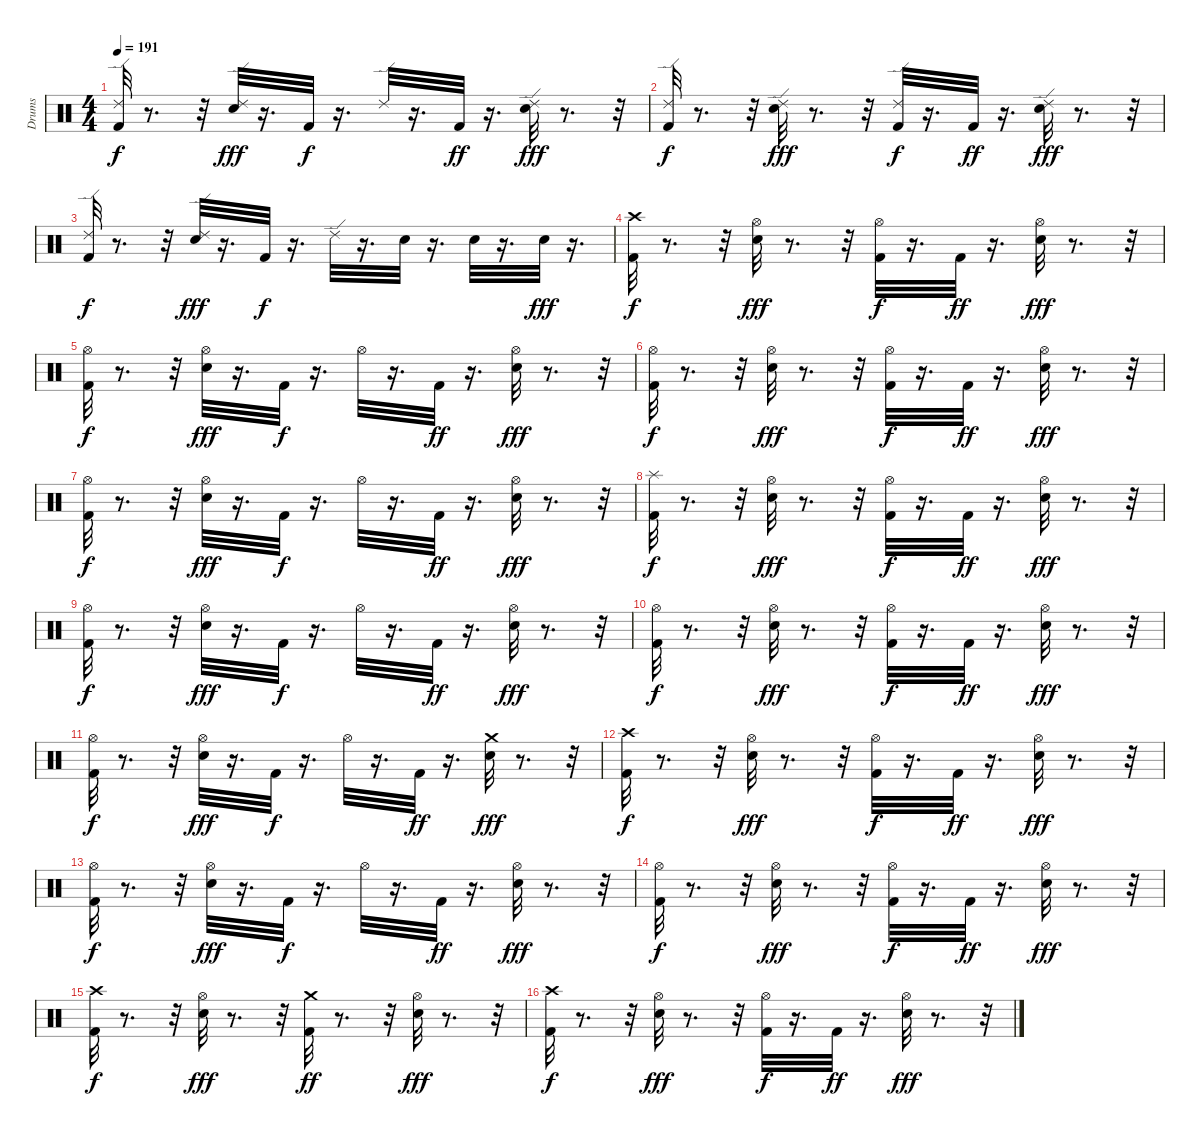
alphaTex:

\track ("Drums" "Drums") {instrument percussion}
\staff {score}
\articulation defaults
\ts (4 4)
\tempo 191
\clef neutral
\ks c
("Kick (hit) 2" "Ride (edge) 2").32{dy f} r.8{d} r.32 ("Snare (hit) 2" "Ride (edge) 2").32{dy fff} r.16{d} "Kick (hit) 2".32{dy f} r.16{d} "Ride (edge) 2".32 r.16{d} "Kick (hit) 2".32{dy ff} r.16{d} ("Snare (hit) 2" "Ride (edge) 2").32{dy fff} r.8{d} r.32 |
("Kick (hit) 2" "Ride (edge) 2").32{dy f} r.8{d} r.32 ("Snare (hit) 2" "Ride (edge) 2").32{dy fff} r.8{d} r.32 ("Kick (hit) 2" "Ride (edge) 2").32{dy f} r.16{d} "Kick (hit) 2".32{dy ff} r.16{d} ("Snare (hit) 2" "Ride (edge) 2").32{dy fff} r.8{d} r.32 |
("Kick (hit) 2" "Ride (edge) 2").32{dy f} r.8{d} r.32 ("Snare (hit) 2" "Ride (edge) 2").32{dy fff} r.16{d} "Kick (hit) 2".32{dy f} r.16{d} "Ride (edge) 2".32 r.16{d} "Snare (hit) 2".32 r.16{d} "Snare (hit) 2".32 r.16{d} "Snare (hit) 2".32{dy fff} r.16{d} |
("Crash high (hit)" "Kick (hit) 2").32{dy f} r.8{d} r.32 ("Snare (hit) 2" "Hi-Hat (open)").32{dy fff} r.8{d} r.32 ("Kick (hit) 2" "Hi-Hat (open)").32{dy f} r.16{d} "Kick (hit) 2".32{dy ff} r.16{d} ("Snare (hit) 2" "Hi-Hat (open)").32{dy fff} r.8{d} r.32 |
("Kick (hit) 2" "Hi-Hat (open)").32{dy f} r.8{d} r.32 ("Snare (hit) 2" "Hi-Hat (open)").32{dy fff} r.16{d} "Kick (hit) 2".32{dy f} r.16{d} "Hi-Hat (open)".32 r.16{d} "Kick (hit) 2".32{dy ff} r.16{d} ("Snare (hit) 2" "Hi-Hat (open)").32{dy fff} r.8{d} r.32 |
("Kick (hit) 2" "Hi-Hat (open)").32{dy f} r.8{d} r.32 ("Snare (hit) 2" "Hi-Hat (open)").32{dy fff} r.8{d} r.32 ("Kick (hit) 2" "Hi-Hat (open)").32{dy f} r.16{d} "Kick (hit) 2".32{dy ff} r.16{d} ("Snare (hit) 2" "Hi-Hat (open)").32{dy fff} r.8{d} r.32 |
("Kick (hit) 2" "Hi-Hat (open)").32{dy f} r.8{d} r.32 ("Snare (hit) 2" "Hi-Hat (open)").32{dy fff} r.16{d} "Kick (hit) 2".32{dy f} r.16{d} "Hi-Hat (open)".32 r.16{d} "Kick (hit) 2".32{dy ff} r.16{d} ("Snare (hit) 2" "Hi-Hat (open)").32{dy fff} r.8{d} r.32 |
("Splash (hit)" "Kick (hit) 2").32{dy f} r.8{d} r.32 ("Snare (hit) 2" "Hi-Hat (open)").32{dy fff} r.8{d} r.32 ("Kick (hit) 2" "Hi-Hat (open)").32{dy f} r.16{d} "Kick (hit) 2".32{dy ff} r.16{d} ("Snare (hit) 2" "Hi-Hat (open)").32{dy fff} r.8{d} r.32 |
("Kick (hit) 2" "Hi-Hat (open)").32{dy f} r.8{d} r.32 ("Snare (hit) 2" "Hi-Hat (open)").32{dy fff} r.16{d} "Kick (hit) 2".32{dy f} r.16{d} "Hi-Hat (open)".32 r.16{d} "Kick (hit) 2".32{dy ff} r.16{d} ("Snare (hit) 2" "Hi-Hat (open)").32{dy fff} r.8{d} r.32 |
("Kick (hit) 2" "Hi-Hat (open)").32{dy f} r.8{d} r.32 ("Snare (hit) 2" "Hi-Hat (open)").32{dy fff} r.8{d} r.32 ("Kick (hit) 2" "Hi-Hat (open)").32{dy f} r.16{d} "Kick (hit) 2".32{dy ff} r.16{d} ("Snare (hit) 2" "Hi-Hat (open)").32{dy fff} r.8{d} r.32 |
("Kick (hit) 2" "Hi-Hat (open)").32{dy f} r.8{d} r.32 ("Snare (hit) 2" "Hi-Hat (open)").32{dy fff} r.16{d} "Kick (hit) 2".32{dy f} r.16{d} "Hi-Hat (open)".32 r.16{d} "Kick (hit) 2".32{dy ff} r.16{d} ("Snare (hit) 2" "Crash medium (hit)").32{dy fff} r.8{d} r.32 |
("Crash high (hit)" "Kick (hit) 2").32{dy f} r.8{d} r.32 ("Snare (hit) 2" "Hi-Hat (open)").32{dy fff} r.8{d} r.32 ("Kick (hit) 2" "Hi-Hat (open)").32{dy f} r.16{d} "Kick (hit) 2".32{dy ff} r.16{d} ("Snare (hit) 2" "Hi-Hat (open)").32{dy fff} r.8{d} r.32 |
("Kick (hit) 2" "Hi-Hat (open)").32{dy f} r.8{d} r.32 ("Snare (hit) 2" "Hi-Hat (open)").32{dy fff} r.16{d} "Kick (hit) 2".32{dy f} r.16{d} "Hi-Hat (open)".32 r.16{d} "Kick (hit) 2".32{dy ff} r.16{d} ("Snare (hit) 2" "Hi-Hat (open)").32{dy fff} r.8{d} r.32 |
("Kick (hit) 2" "Hi-Hat (open)").32{dy f} r.8{d} r.32 ("Snare (hit) 2" "Hi-Hat (open)").32{dy fff} r.8{d} r.32 ("Kick (hit) 2" "Hi-Hat (open)").32{dy f} r.16{d} "Kick (hit) 2".32{dy ff} r.16{d} ("Snare (hit) 2" "Hi-Hat (open)").32{dy fff} r.8{d} r.32 |
("Crash high (hit)" "Kick (hit) 2").32{dy f} r.8{d} r.32 ("Snare (hit) 2" "Hi-Hat (open)").32{dy fff} r.8{d} r.32 ("Kick (hit) 2" "Crash medium (hit)").32{dy ff} r.8{d} r.32 ("Snare (hit) 2" "Hi-Hat (open)").32{dy fff} r.8{d} r.32 |
("Crash high (hit)" "Kick (hit) 2").32{dy f} r.8{d} r.32 ("Snare (hit) 2" "Hi-Hat (open)").32{dy fff} r.8{d} r.32 ("Kick (hit) 2" "Hi-Hat (open)").32{dy f} r.16{d} "Kick (hit) 2".32{dy ff} r.16{d} ("Snare (hit) 2" "Hi-Hat (open)").32{dy fff} r.8{d} r.32
